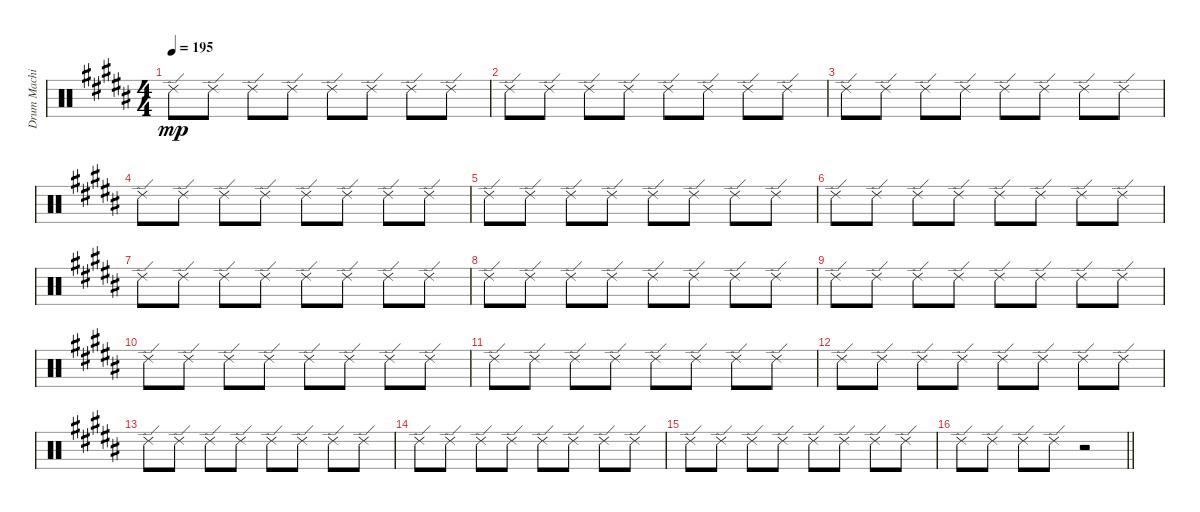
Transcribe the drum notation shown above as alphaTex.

\track ("Drum Machine" "Drum Machi") {instrument percussion}
\staff {score}
\articulation defaults
\ts (4 4)
\tempo 195
\clef neutral
\ks b "Ride (edge) 2".8{dy mp} "Ride (edge) 2".8 "Ride (edge) 2".8 "Ride (edge) 2".8 "Ride (edge) 2".8 "Ride (edge) 2".8 "Ride (edge) 2".8 "Ride (edge) 2".8
|
"Ride (edge) 2".8 "Ride (edge) 2".8 "Ride (edge) 2".8 "Ride (edge) 2".8 "Ride (edge) 2".8 "Ride (edge) 2".8 "Ride (edge) 2".8 "Ride (edge) 2".8 |
"Ride (edge) 2".8 "Ride (edge) 2".8 "Ride (edge) 2".8 "Ride (edge) 2".8 "Ride (edge) 2".8 "Ride (edge) 2".8 "Ride (edge) 2".8 "Ride (edge) 2".8 |
"Ride (edge) 2".8 "Ride (edge) 2".8 "Ride (edge) 2".8 "Ride (edge) 2".8 "Ride (edge) 2".8 "Ride (edge) 2".8 "Ride (edge) 2".8 "Ride (edge) 2".8 |
"Ride (edge) 2".8 "Ride (edge) 2".8 "Ride (edge) 2".8 "Ride (edge) 2".8 "Ride (edge) 2".8 "Ride (edge) 2".8 "Ride (edge) 2".8 "Ride (edge) 2".8 |
"Ride (edge) 2".8 "Ride (edge) 2".8 "Ride (edge) 2".8 "Ride (edge) 2".8 "Ride (edge) 2".8 "Ride (edge) 2".8 "Ride (edge) 2".8 "Ride (edge) 2".8 |
"Ride (edge) 2".8 "Ride (edge) 2".8 "Ride (edge) 2".8 "Ride (edge) 2".8 "Ride (edge) 2".8 "Ride (edge) 2".8 "Ride (edge) 2".8 "Ride (edge) 2".8 |
"Ride (edge) 2".8 "Ride (edge) 2".8 "Ride (edge) 2".8 "Ride (edge) 2".8 "Ride (edge) 2".8 "Ride (edge) 2".8 "Ride (edge) 2".8 "Ride (edge) 2".8 |
"Ride (edge) 2".8 "Ride (edge) 2".8 "Ride (edge) 2".8 "Ride (edge) 2".8 "Ride (edge) 2".8 "Ride (edge) 2".8 "Ride (edge) 2".8 "Ride (edge) 2".8 |
"Ride (edge) 2".8 "Ride (edge) 2".8 "Ride (edge) 2".8 "Ride (edge) 2".8 "Ride (edge) 2".8 "Ride (edge) 2".8 "Ride (edge) 2".8 "Ride (edge) 2".8 |
"Ride (edge) 2".8 "Ride (edge) 2".8 "Ride (edge) 2".8 "Ride (edge) 2".8 "Ride (edge) 2".8 "Ride (edge) 2".8 "Ride (edge) 2".8 "Ride (edge) 2".8 |
"Ride (edge) 2".8 "Ride (edge) 2".8 "Ride (edge) 2".8 "Ride (edge) 2".8 "Ride (edge) 2".8 "Ride (edge) 2".8 "Ride (edge) 2".8 "Ride (edge) 2".8 |
"Ride (edge) 2".8 "Ride (edge) 2".8 "Ride (edge) 2".8 "Ride (edge) 2".8 "Ride (edge) 2".8 "Ride (edge) 2".8 "Ride (edge) 2".8 "Ride (edge) 2".8 |
"Ride (edge) 2".8 "Ride (edge) 2".8 "Ride (edge) 2".8 "Ride (edge) 2".8 "Ride (edge) 2".8 "Ride (edge) 2".8 "Ride (edge) 2".8 "Ride (edge) 2".8 |
"Ride (edge) 2".8 "Ride (edge) 2".8 "Ride (edge) 2".8 "Ride (edge) 2".8 "Ride (edge) 2".8 "Ride (edge) 2".8 "Ride (edge) 2".8 "Ride (edge) 2".8 |
\barLineRight lightlight "Ride (edge) 2".8 "Ride (edge) 2".8 "Ride (edge) 2".8 "Ride (edge) 2".8
r.2
